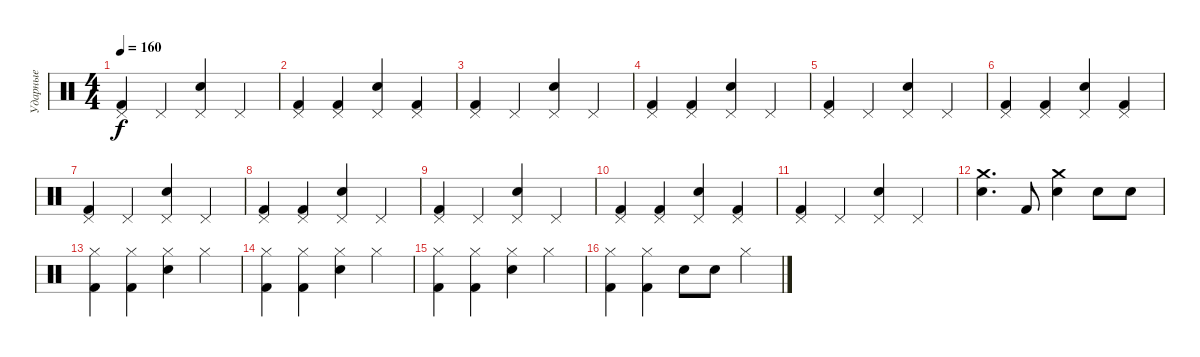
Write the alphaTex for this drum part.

\track ("Ударные" "Ударные") {instrument percussion}
\staff {score}
\articulation defaults
\ts (4 4)
\tempo 160
\clef neutral
\ks c
("Pedal Hi-Hat (hit)" "Kick (hit) 2").4{dy f} "Pedal Hi-Hat (hit)".4 ("Electric Snare (hit)" "Pedal Hi-Hat (hit)").4 "Pedal Hi-Hat (hit)".4 |
("Pedal Hi-Hat (hit)" "Kick (hit) 2").4 ("Pedal Hi-Hat (hit)" "Kick (hit) 2").4 ("Electric Snare (hit)" "Pedal Hi-Hat (hit)").4 ("Pedal Hi-Hat (hit)" "Kick (hit) 2").4 |
("Pedal Hi-Hat (hit)" "Kick (hit) 2").4 "Pedal Hi-Hat (hit)".4 ("Electric Snare (hit)" "Pedal Hi-Hat (hit)").4 "Pedal Hi-Hat (hit)".4 |
("Pedal Hi-Hat (hit)" "Kick (hit) 2").4 ("Pedal Hi-Hat (hit)" "Kick (hit) 2").4 ("Electric Snare (hit)" "Pedal Hi-Hat (hit)").4 "Pedal Hi-Hat (hit)".4 |
("Pedal Hi-Hat (hit)" "Kick (hit) 2").4 "Pedal Hi-Hat (hit)".4 ("Electric Snare (hit)" "Pedal Hi-Hat (hit)").4 "Pedal Hi-Hat (hit)".4 |
("Pedal Hi-Hat (hit)" "Kick (hit) 2").4 ("Pedal Hi-Hat (hit)" "Kick (hit) 2").4 ("Electric Snare (hit)" "Pedal Hi-Hat (hit)").4 ("Pedal Hi-Hat (hit)" "Kick (hit) 2").4 |
("Pedal Hi-Hat (hit)" "Kick (hit) 2").4 "Pedal Hi-Hat (hit)".4 ("Electric Snare (hit)" "Pedal Hi-Hat (hit)").4 "Pedal Hi-Hat (hit)".4 |
("Pedal Hi-Hat (hit)" "Kick (hit) 2").4 ("Pedal Hi-Hat (hit)" "Kick (hit) 2").4 ("Electric Snare (hit)" "Pedal Hi-Hat (hit)").4 "Pedal Hi-Hat (hit)".4 |
("Pedal Hi-Hat (hit)" "Kick (hit) 2").4 "Pedal Hi-Hat (hit)".4 ("Electric Snare (hit)" "Pedal Hi-Hat (hit)").4 "Pedal Hi-Hat (hit)".4 |
("Pedal Hi-Hat (hit)" "Kick (hit) 2").4 ("Pedal Hi-Hat (hit)" "Kick (hit) 2").4 ("Electric Snare (hit)" "Pedal Hi-Hat (hit)").4 ("Pedal Hi-Hat (hit)" "Kick (hit) 2").4 |
("Pedal Hi-Hat (hit)" "Kick (hit) 2").4 "Pedal Hi-Hat (hit)".4 ("Electric Snare (hit)" "Pedal Hi-Hat (hit)").4 "Pedal Hi-Hat (hit)".4 |
("Crash medium (hit)" "Electric Snare (hit)").4{d} "Kick (hit) 2".8 ("Crash medium (hit)" "Electric Snare (hit)").4 "Electric Snare (hit)".8 "Electric Snare (hit)".8 |
("Hi-Hat (closed)" "Kick (hit) 2").4 ("Hi-Hat (closed)" "Kick (hit) 2").4 ("Electric Snare (hit)" "Hi-Hat (closed)").4 "Hi-Hat (closed)".4 |
("Hi-Hat (closed)" "Kick (hit) 2").4 ("Hi-Hat (closed)" "Kick (hit) 2").4 ("Electric Snare (hit)" "Hi-Hat (closed)").4 "Hi-Hat (closed)".4 |
("Hi-Hat (closed)" "Kick (hit) 2").4 ("Hi-Hat (closed)" "Kick (hit) 2").4 ("Electric Snare (hit)" "Hi-Hat (closed)").4 "Hi-Hat (closed)".4 |
("Hi-Hat (closed)" "Kick (hit) 2").4 ("Hi-Hat (closed)" "Kick (hit) 2").4 "Electric Snare (hit)".8 "Electric Snare (hit)".8 "Hi-Hat (closed)".4
